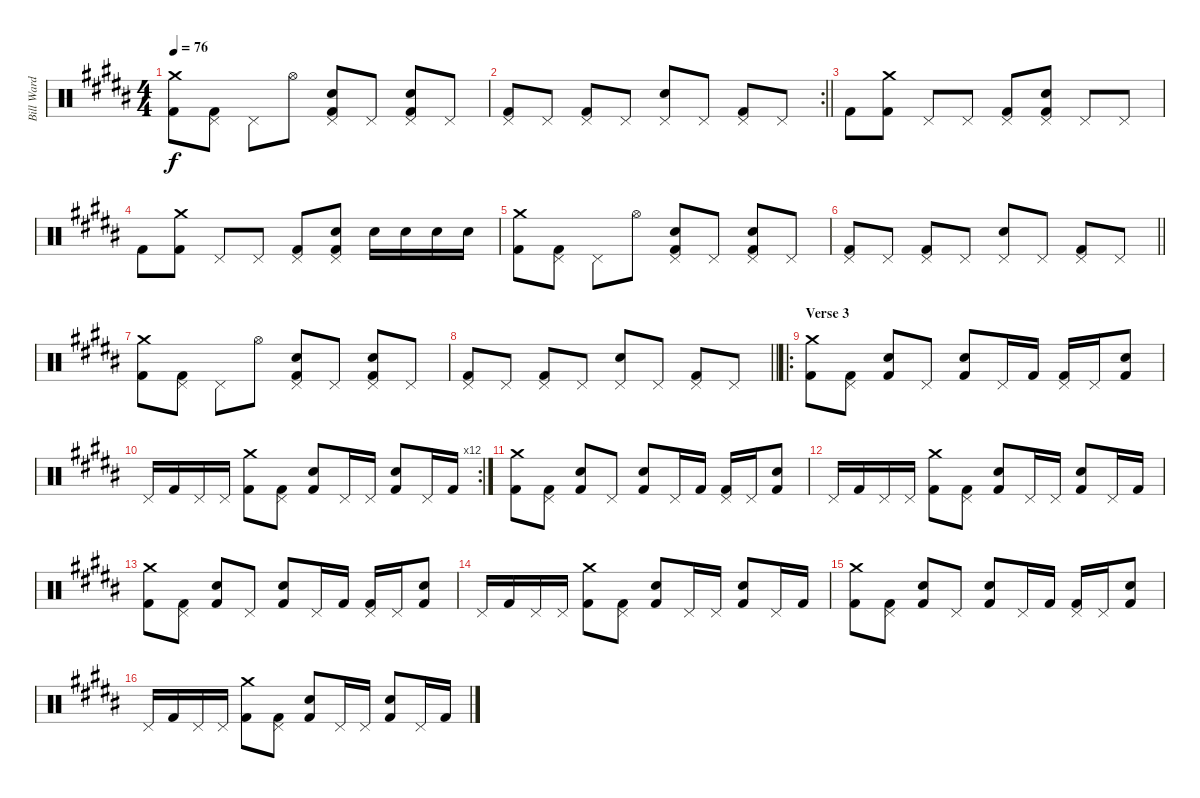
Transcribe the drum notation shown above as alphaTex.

\track ("Bill Ward" "Bill Ward") {instrument percussion}
\staff {score}
\articulation defaults
\ts (4 4)
\tempo 76
\clef neutral
\ks b
("Crash medium (hit)" "Kick (hit) 2").8{dy f} ("Pedal Hi-Hat (hit)" "Kick (hit) 2").8 "Pedal Hi-Hat (hit)".8 "Hi-Hat (open)".8 ("Pedal Hi-Hat (hit)" "Snare (hit) 2" "Kick (hit) 2").8 "Pedal Hi-Hat (hit)".8 ("Pedal Hi-Hat (hit)" "Snare (hit) 2" "Kick (hit) 2").8 "Pedal Hi-Hat (hit)".8 |
\rc 2
\barLineRight lightlight
("Pedal Hi-Hat (hit)" "Kick (hit) 2").8 "Pedal Hi-Hat (hit)".8 ("Pedal Hi-Hat (hit)" "Kick (hit) 2").8 "Pedal Hi-Hat (hit)".8 ("Pedal Hi-Hat (hit)" "Snare (hit) 2").8 "Pedal Hi-Hat (hit)".8 ("Pedal Hi-Hat (hit)" "Kick (hit) 2").8 "Pedal Hi-Hat (hit)".8 |
"Kick (hit) 2".8 ("Crash medium (hit)" "Kick (hit) 2").8 "Pedal Hi-Hat (hit)".8 "Pedal Hi-Hat (hit)".8 ("Pedal Hi-Hat (hit)" "Kick (hit) 2").8 ("Pedal Hi-Hat (hit)" "Snare (hit) 2" "Kick (hit) 2").8 "Pedal Hi-Hat (hit)".8 "Pedal Hi-Hat (hit)".8 |
"Kick (hit) 2".8 ("Crash medium (hit)" "Kick (hit) 2").8 "Pedal Hi-Hat (hit)".8 "Pedal Hi-Hat (hit)".8 ("Pedal Hi-Hat (hit)" "Kick (hit) 2").8 ("Pedal Hi-Hat (hit)" "Snare (hit) 2" "Kick (hit) 2").8 "Snare (hit) 2".16 "Snare (hit) 2".16 "Snare (hit) 2".16 "Snare (hit) 2".16 |
("Crash medium (hit)" "Kick (hit) 2").8 ("Pedal Hi-Hat (hit)" "Kick (hit) 2").8 "Pedal Hi-Hat (hit)".8 "Hi-Hat (open)".8 ("Pedal Hi-Hat (hit)" "Snare (hit) 2" "Kick (hit) 2").8 "Pedal Hi-Hat (hit)".8 ("Pedal Hi-Hat (hit)" "Snare (hit) 2" "Kick (hit) 2").8 "Pedal Hi-Hat (hit)".8 |
\barLineRight lightlight
("Pedal Hi-Hat (hit)" "Kick (hit) 2").8 "Pedal Hi-Hat (hit)".8 ("Pedal Hi-Hat (hit)" "Kick (hit) 2").8 "Pedal Hi-Hat (hit)".8 ("Pedal Hi-Hat (hit)" "Snare (hit) 2").8 "Pedal Hi-Hat (hit)".8 ("Pedal Hi-Hat (hit)" "Kick (hit) 2").8 "Pedal Hi-Hat (hit)".8 |
("Crash medium (hit)" "Kick (hit) 2").8 ("Pedal Hi-Hat (hit)" "Kick (hit) 2").8 "Pedal Hi-Hat (hit)".8 "Hi-Hat (open)".8 ("Pedal Hi-Hat (hit)" "Snare (hit) 2" "Kick (hit) 2").8 "Pedal Hi-Hat (hit)".8 ("Pedal Hi-Hat (hit)" "Snare (hit) 2" "Kick (hit) 2").8 "Pedal Hi-Hat (hit)".8 |
\barLineRight lightlight
("Pedal Hi-Hat (hit)" "Kick (hit) 2").8 "Pedal Hi-Hat (hit)".8 ("Pedal Hi-Hat (hit)" "Kick (hit) 2").8 "Pedal Hi-Hat (hit)".8 ("Pedal Hi-Hat (hit)" "Snare (hit) 2").8 "Pedal Hi-Hat (hit)".8 ("Pedal Hi-Hat (hit)" "Kick (hit) 2").8 "Pedal Hi-Hat (hit)".8 |
\ro
\section ("" "Verse 3")
("Crash medium (hit)" "Kick (hit) 2").8 ("Pedal Hi-Hat (hit)" "Kick (hit) 2").8 ("Snare (hit) 2" "Kick (hit) 2").8 "Pedal Hi-Hat (hit)".8 ("Snare (hit) 2" "Kick (hit) 2").8 "Pedal Hi-Hat (hit)".16 "Kick (hit) 2".16 ("Pedal Hi-Hat (hit)" "Kick (hit) 2").16 "Pedal Hi-Hat (hit)".16 ("Snare (hit) 2" "Kick (hit) 2").8 |
\rc 12 "Pedal Hi-Hat (hit)".16 "Kick (hit) 2".16 "Pedal Hi-Hat (hit)".16 "Pedal Hi-Hat (hit)".16
("Crash medium (hit)" "Kick (hit) 2").8 ("Pedal Hi-Hat (hit)" "Kick (hit) 2").8 ("Snare (hit) 2" "Kick (hit) 2").8 "Pedal Hi-Hat (hit)".16 "Pedal Hi-Hat (hit)".16 ("Snare (hit) 2" "Kick (hit) 2").8 "Pedal Hi-Hat (hit)".16 "Kick (hit) 2".16 |
("Crash medium (hit)" "Kick (hit) 2").8 ("Pedal Hi-Hat (hit)" "Kick (hit) 2").8 ("Snare (hit) 2" "Kick (hit) 2").8 "Pedal Hi-Hat (hit)".8 ("Snare (hit) 2" "Kick (hit) 2").8 "Pedal Hi-Hat (hit)".16 "Kick (hit) 2".16 ("Pedal Hi-Hat (hit)" "Kick (hit) 2").16 "Pedal Hi-Hat (hit)".16 ("Snare (hit) 2" "Kick (hit) 2").8 |
"Pedal Hi-Hat (hit)".16 "Kick (hit) 2".16 "Pedal Hi-Hat (hit)".16 "Pedal Hi-Hat (hit)".16 ("Crash medium (hit)" "Kick (hit) 2").8 ("Pedal Hi-Hat (hit)" "Kick (hit) 2").8 ("Snare (hit) 2" "Kick (hit) 2").8 "Pedal Hi-Hat (hit)".16 "Pedal Hi-Hat (hit)".16 ("Snare (hit) 2" "Kick (hit) 2").8 "Pedal Hi-Hat (hit)".16 "Kick (hit) 2".16 |
("Crash medium (hit)" "Kick (hit) 2").8 ("Pedal Hi-Hat (hit)" "Kick (hit) 2").8 ("Snare (hit) 2" "Kick (hit) 2").8 "Pedal Hi-Hat (hit)".8 ("Snare (hit) 2" "Kick (hit) 2").8 "Pedal Hi-Hat (hit)".16 "Kick (hit) 2".16 ("Pedal Hi-Hat (hit)" "Kick (hit) 2").16 "Pedal Hi-Hat (hit)".16 ("Snare (hit) 2" "Kick (hit) 2").8 |
"Pedal Hi-Hat (hit)".16 "Kick (hit) 2".16 "Pedal Hi-Hat (hit)".16 "Pedal Hi-Hat (hit)".16 ("Crash medium (hit)" "Kick (hit) 2").8 ("Pedal Hi-Hat (hit)" "Kick (hit) 2").8 ("Snare (hit) 2" "Kick (hit) 2").8 "Pedal Hi-Hat (hit)".16 "Pedal Hi-Hat (hit)".16 ("Snare (hit) 2" "Kick (hit) 2").8 "Pedal Hi-Hat (hit)".16 "Kick (hit) 2".16 |
("Crash medium (hit)" "Kick (hit) 2").8 ("Pedal Hi-Hat (hit)" "Kick (hit) 2").8 ("Snare (hit) 2" "Kick (hit) 2").8 "Pedal Hi-Hat (hit)".8 ("Snare (hit) 2" "Kick (hit) 2").8 "Pedal Hi-Hat (hit)".16 "Kick (hit) 2".16 ("Pedal Hi-Hat (hit)" "Kick (hit) 2").16 "Pedal Hi-Hat (hit)".16 ("Snare (hit) 2" "Kick (hit) 2").8 |
"Pedal Hi-Hat (hit)".16 "Kick (hit) 2".16 "Pedal Hi-Hat (hit)".16 "Pedal Hi-Hat (hit)".16 ("Crash medium (hit)" "Kick (hit) 2").8 ("Pedal Hi-Hat (hit)" "Kick (hit) 2").8 ("Snare (hit) 2" "Kick (hit) 2").8 "Pedal Hi-Hat (hit)".16 "Pedal Hi-Hat (hit)".16 ("Snare (hit) 2" "Kick (hit) 2").8 "Pedal Hi-Hat (hit)".16 "Kick (hit) 2".16
